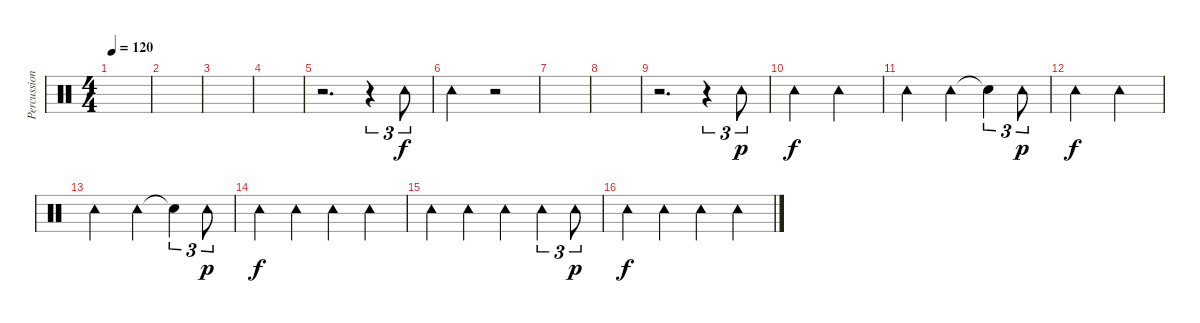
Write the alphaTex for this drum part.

\track ("Percussion" "Percussion") {instrument percussion}
\staff {score}
\articulation defaults
\ts (4 4)
\tempo 120
\clef neutral
\ks c
|
|
|
|
r.2{d} r.4{tu (3 2)} "Tambourine (hit)".8{tu (3 2)} |
"Tambourine (hit)".2{dy f} r.2 |
|
|
r.2{d} r.4{tu (3 2)} "Tambourine (hit)".8{tu (3 2) dy p} |
"Tambourine (hit)".2{dy f} "Tambourine (hit)".2 |
"Tambourine (hit)".2 "Tambourine (hit)".4 "Snare (hit)"{t}.4{tu (3 2)} "Tambourine (hit)".8{tu (3 2) dy p} |
"Tambourine (hit)".2{dy f} "Tambourine (hit)".2 |
"Tambourine (hit)".2 "Tambourine (hit)".4 "Snare (hit)"{t}.4{tu (3 2)} "Tambourine (hit)".8{tu (3 2) dy p} |
"Tambourine (hit)".4{dy f} "Tambourine (hit)".4 "Tambourine (hit)".4 "Tambourine (hit)".4 |
"Tambourine (hit)".4 "Tambourine (hit)".4 "Tambourine (hit)".4 "Tambourine (hit)".4{tu (3 2)} "Tambourine (hit)".8{tu (3 2) dy p} |
"Tambourine (hit)".4{dy f} "Tambourine (hit)".4 "Tambourine (hit)".4 "Tambourine (hit)".4
